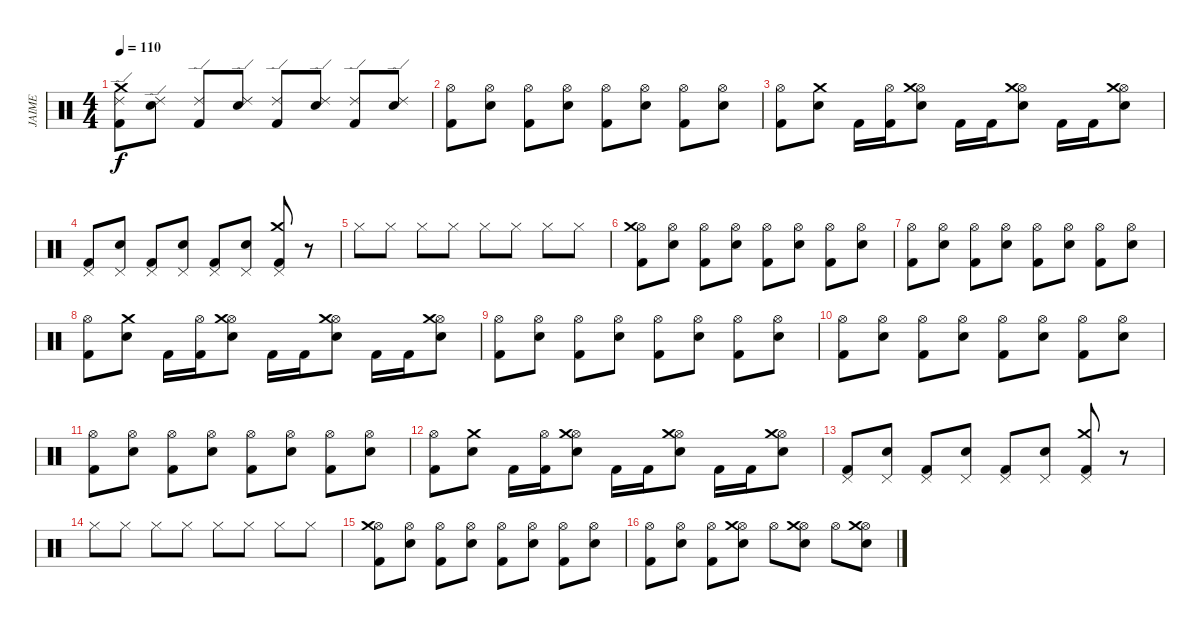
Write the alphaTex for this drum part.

\track ("JAIME" "JAIME") {instrument percussion}
\staff {score}
\articulation defaults
\ts (4 4)
\tempo 110
\clef neutral
\ks c
("Kick (hit) 2" "Ride (edge) 2" "Crash medium (hit)").8{dy f} ("Electric Snare (hit)" "Ride (edge) 2").8 ("Kick (hit) 2" "Ride (edge) 2").8 ("Electric Snare (hit)" "Ride (edge) 2").8 ("Kick (hit) 2" "Ride (edge) 2").8 ("Electric Snare (hit)" "Ride (edge) 2").8 ("Kick (hit) 2" "Ride (edge) 2").8 ("Electric Snare (hit)" "Ride (edge) 2").8 |
("Kick (hit) 2" "Hi-Hat (open)").8 ("Electric Snare (hit)" "Hi-Hat (open)").8 ("Kick (hit) 2" "Hi-Hat (open)").8 ("Electric Snare (hit)" "Hi-Hat (open)").8 ("Kick (hit) 2" "Hi-Hat (open)").8 ("Electric Snare (hit)" "Hi-Hat (open)").8 ("Kick (hit) 2" "Hi-Hat (open)").8 ("Electric Snare (hit)" "Hi-Hat (open)").8 |
("Kick (hit) 2" "Hi-Hat (open)").8 ("Electric Snare (hit)" "Crash medium (hit)").8 "Kick (hit) 2".16 ("Kick (hit) 2" "Hi-Hat (open)").16 ("Electric Snare (hit)" "Hi-Hat (open)" "Crash medium (hit)").8 "Kick (hit) 2".16 "Kick (hit) 2".16 ("Electric Snare (hit)" "Hi-Hat (open)" "Crash medium (hit)").8 "Kick (hit) 2".16 "Kick (hit) 2".16 ("Electric Snare (hit)" "Hi-Hat (open)" "Crash medium (hit)").8 |
("Kick (hit) 2" "Pedal Hi-Hat (hit)").8 ("Electric Snare (hit)" "Pedal Hi-Hat (hit)").8 ("Kick (hit) 2" "Pedal Hi-Hat (hit)").8 ("Electric Snare (hit)" "Pedal Hi-Hat (hit)").8 ("Kick (hit) 2" "Pedal Hi-Hat (hit)").8 ("Electric Snare (hit)" "Pedal Hi-Hat (hit)").8 ("Kick (hit) 2" "Crash medium (hit)" "Pedal Hi-Hat (hit)").8 r.8 |
"Hi-Hat (closed)".8 "Hi-Hat (closed)".8 "Hi-Hat (closed)".8 "Hi-Hat (closed)".8 "Hi-Hat (closed)".8 "Hi-Hat (closed)".8 "Hi-Hat (closed)".8 "Hi-Hat (closed)".8 |
("Kick (hit) 2" "Hi-Hat (open)" "Crash medium (hit)").8 ("Electric Snare (hit)" "Hi-Hat (open)").8 ("Kick (hit) 2" "Hi-Hat (open)").8 ("Electric Snare (hit)" "Hi-Hat (open)").8 ("Kick (hit) 2" "Hi-Hat (open)").8 ("Electric Snare (hit)" "Hi-Hat (open)").8 ("Kick (hit) 2" "Hi-Hat (open)").8 ("Electric Snare (hit)" "Hi-Hat (open)").8 |
("Kick (hit) 2" "Hi-Hat (open)").8 ("Electric Snare (hit)" "Hi-Hat (open)").8 ("Kick (hit) 2" "Hi-Hat (open)").8 ("Electric Snare (hit)" "Hi-Hat (open)").8 ("Kick (hit) 2" "Hi-Hat (open)").8 ("Electric Snare (hit)" "Hi-Hat (open)").8 ("Kick (hit) 2" "Hi-Hat (open)").8 ("Electric Snare (hit)" "Hi-Hat (open)").8 |
("Kick (hit) 2" "Hi-Hat (open)").8 ("Electric Snare (hit)" "Crash medium (hit)").8 "Kick (hit) 2".16 ("Kick (hit) 2" "Hi-Hat (open)").16 ("Electric Snare (hit)" "Hi-Hat (open)" "Crash medium (hit)").8 "Kick (hit) 2".16 "Kick (hit) 2".16 ("Electric Snare (hit)" "Hi-Hat (open)" "Crash medium (hit)").8 "Kick (hit) 2".16 "Kick (hit) 2".16 ("Electric Snare (hit)" "Hi-Hat (open)" "Crash medium (hit)").8 |
("Kick (hit) 2" "Hi-Hat (open)").8 ("Electric Snare (hit)" "Hi-Hat (open)").8 ("Kick (hit) 2" "Hi-Hat (open)").8 ("Electric Snare (hit)" "Hi-Hat (open)").8 ("Kick (hit) 2" "Hi-Hat (open)").8 ("Electric Snare (hit)" "Hi-Hat (open)").8 ("Kick (hit) 2" "Hi-Hat (open)").8 ("Electric Snare (hit)" "Hi-Hat (open)").8 |
("Kick (hit) 2" "Hi-Hat (open)").8 ("Electric Snare (hit)" "Hi-Hat (open)").8 ("Kick (hit) 2" "Hi-Hat (open)").8 ("Electric Snare (hit)" "Hi-Hat (open)").8 ("Kick (hit) 2" "Hi-Hat (open)").8 ("Electric Snare (hit)" "Hi-Hat (open)").8 ("Kick (hit) 2" "Hi-Hat (open)").8 ("Electric Snare (hit)" "Hi-Hat (open)").8 |
("Kick (hit) 2" "Hi-Hat (open)").8 ("Electric Snare (hit)" "Hi-Hat (open)").8 ("Kick (hit) 2" "Hi-Hat (open)").8 ("Electric Snare (hit)" "Hi-Hat (open)").8 ("Kick (hit) 2" "Hi-Hat (open)").8 ("Electric Snare (hit)" "Hi-Hat (open)").8 ("Kick (hit) 2" "Hi-Hat (open)").8 ("Electric Snare (hit)" "Hi-Hat (open)").8 |
("Kick (hit) 2" "Hi-Hat (open)").8 ("Electric Snare (hit)" "Crash medium (hit)").8 "Kick (hit) 2".16 ("Kick (hit) 2" "Hi-Hat (open)").16 ("Electric Snare (hit)" "Hi-Hat (open)" "Crash medium (hit)").8 "Kick (hit) 2".16 "Kick (hit) 2".16 ("Electric Snare (hit)" "Hi-Hat (open)" "Crash medium (hit)").8 "Kick (hit) 2".16 "Kick (hit) 2".16 ("Electric Snare (hit)" "Hi-Hat (open)" "Crash medium (hit)").8 |
("Kick (hit) 2" "Pedal Hi-Hat (hit)").8 ("Electric Snare (hit)" "Pedal Hi-Hat (hit)").8 ("Kick (hit) 2" "Pedal Hi-Hat (hit)").8 ("Electric Snare (hit)" "Pedal Hi-Hat (hit)").8 ("Kick (hit) 2" "Pedal Hi-Hat (hit)").8 ("Electric Snare (hit)" "Pedal Hi-Hat (hit)").8 ("Kick (hit) 2" "Crash medium (hit)" "Pedal Hi-Hat (hit)").8 r.8 |
"Hi-Hat (closed)".8 "Hi-Hat (closed)".8 "Hi-Hat (closed)".8 "Hi-Hat (closed)".8 "Hi-Hat (closed)".8 "Hi-Hat (closed)".8 "Hi-Hat (closed)".8 "Hi-Hat (closed)".8 |
("Kick (hit) 2" "Hi-Hat (open)" "Crash medium (hit)").8 ("Electric Snare (hit)" "Hi-Hat (open)").8 ("Kick (hit) 2" "Hi-Hat (open)").8 ("Electric Snare (hit)" "Hi-Hat (open)").8 ("Kick (hit) 2" "Hi-Hat (open)").8 ("Electric Snare (hit)" "Hi-Hat (open)").8 ("Kick (hit) 2" "Hi-Hat (open)").8 ("Electric Snare (hit)" "Hi-Hat (open)").8 |
("Kick (hit) 2" "Hi-Hat (open)").8 ("Electric Snare (hit)" "Hi-Hat (open)").8 ("Kick (hit) 2" "Hi-Hat (open)").8 ("Electric Snare (hit)" "Hi-Hat (open)" "Crash medium (hit)").8 "Hi-Hat (open)".8 ("Electric Snare (hit)" "Hi-Hat (open)" "Crash medium (hit)").8 "Hi-Hat (open)".8 ("Electric Snare (hit)" "Hi-Hat (open)" "Crash medium (hit)").8
